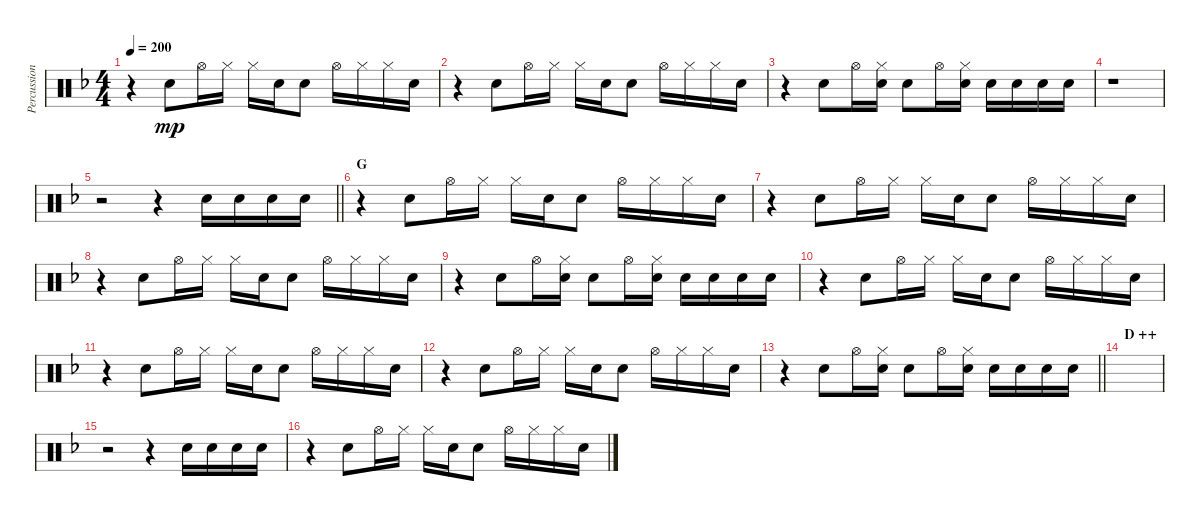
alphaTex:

\track ("Percussion (Tainaka Ritsu)" "Percussion") {instrument percussion}
\staff {score}
\articulation defaults
\ts (4 4)
\tempo 200
\clef neutral
\ks f
r.4{dy mp} "Electric Snare (hit)".8 "Hi-Hat (open)".16 "Hi-Hat (closed)".16 "Hi-Hat (closed)".16 "Electric Snare (hit)".16 "Electric Snare (hit)".8 "Hi-Hat (open)".16 "Hi-Hat (closed)".16 "Hi-Hat (closed)".16 "Electric Snare (hit)".16 |
r.4 "Electric Snare (hit)".8 "Hi-Hat (open)".16 "Hi-Hat (closed)".16 "Hi-Hat (closed)".16 "Electric Snare (hit)".16 "Electric Snare (hit)".8 "Hi-Hat (open)".16 "Hi-Hat (closed)".16 "Hi-Hat (closed)".16 "Electric Snare (hit)".16 |
r.4 "Electric Snare (hit)".8 "Hi-Hat (open)".16 ("Hi-Hat (closed)" "Electric Snare (hit)").16 "Electric Snare (hit)".8 "Hi-Hat (open)".16 ("Hi-Hat (closed)" "Electric Snare (hit)").16 "Electric Snare (hit)".16 "Electric Snare (hit)".16 "Electric Snare (hit)".16 "Electric Snare (hit)".16 |
r.1 |
\barLineRight lightlight
r.2 r.4 "Electric Snare (hit)".16 "Electric Snare (hit)".16 "Electric Snare (hit)".16 "Electric Snare (hit)".16 |
\section ("" "G")
r.4 "Electric Snare (hit)".8 "Hi-Hat (open)".16 "Hi-Hat (closed)".16 "Hi-Hat (closed)".16 "Electric Snare (hit)".16 "Electric Snare (hit)".8 "Hi-Hat (open)".16 "Hi-Hat (closed)".16 "Hi-Hat (closed)".16 "Electric Snare (hit)".16 |
r.4 "Electric Snare (hit)".8 "Hi-Hat (open)".16 "Hi-Hat (closed)".16 "Hi-Hat (closed)".16 "Electric Snare (hit)".16 "Electric Snare (hit)".8 "Hi-Hat (open)".16 "Hi-Hat (closed)".16 "Hi-Hat (closed)".16 "Electric Snare (hit)".16 |
r.4 "Electric Snare (hit)".8 "Hi-Hat (open)".16 "Hi-Hat (closed)".16 "Hi-Hat (closed)".16 "Electric Snare (hit)".16 "Electric Snare (hit)".8 "Hi-Hat (open)".16 "Hi-Hat (closed)".16 "Hi-Hat (closed)".16 "Electric Snare (hit)".16 |
r.4 "Electric Snare (hit)".8 "Hi-Hat (open)".16 ("Hi-Hat (closed)" "Electric Snare (hit)").16 "Electric Snare (hit)".8 "Hi-Hat (open)".16 ("Hi-Hat (closed)" "Electric Snare (hit)").16 "Electric Snare (hit)".16 "Electric Snare (hit)".16 "Electric Snare (hit)".16 "Electric Snare (hit)".16 |
r.4 "Electric Snare (hit)".8 "Hi-Hat (open)".16 "Hi-Hat (closed)".16 "Hi-Hat (closed)".16 "Electric Snare (hit)".16 "Electric Snare (hit)".8 "Hi-Hat (open)".16 "Hi-Hat (closed)".16 "Hi-Hat (closed)".16 "Electric Snare (hit)".16 |
r.4 "Electric Snare (hit)".8 "Hi-Hat (open)".16 "Hi-Hat (closed)".16 "Hi-Hat (closed)".16 "Electric Snare (hit)".16 "Electric Snare (hit)".8 "Hi-Hat (open)".16 "Hi-Hat (closed)".16 "Hi-Hat (closed)".16 "Electric Snare (hit)".16 |
r.4 "Electric Snare (hit)".8 "Hi-Hat (open)".16 "Hi-Hat (closed)".16 "Hi-Hat (closed)".16 "Electric Snare (hit)".16 "Electric Snare (hit)".8 "Hi-Hat (open)".16 "Hi-Hat (closed)".16 "Hi-Hat (closed)".16 "Electric Snare (hit)".16 |
\barLineRight lightlight
r.4 "Electric Snare (hit)".8 "Hi-Hat (open)".16 ("Hi-Hat (closed)" "Electric Snare (hit)").16 "Electric Snare (hit)".8 "Hi-Hat (open)".16 ("Hi-Hat (closed)" "Electric Snare (hit)").16 "Electric Snare (hit)".16 "Electric Snare (hit)".16 "Electric Snare (hit)".16 "Electric Snare (hit)".16 |
\section ("" "D ++")
|
r.2 r.4 "Electric Snare (hit)".16 "Electric Snare (hit)".16 "Electric Snare (hit)".16 "Electric Snare (hit)".16 |
r.4 "Electric Snare (hit)".8 "Hi-Hat (open)".16 "Hi-Hat (closed)".16 "Hi-Hat (closed)".16 "Electric Snare (hit)".16 "Electric Snare (hit)".8 "Hi-Hat (open)".16 "Hi-Hat (closed)".16 "Hi-Hat (closed)".16 "Electric Snare (hit)".16
